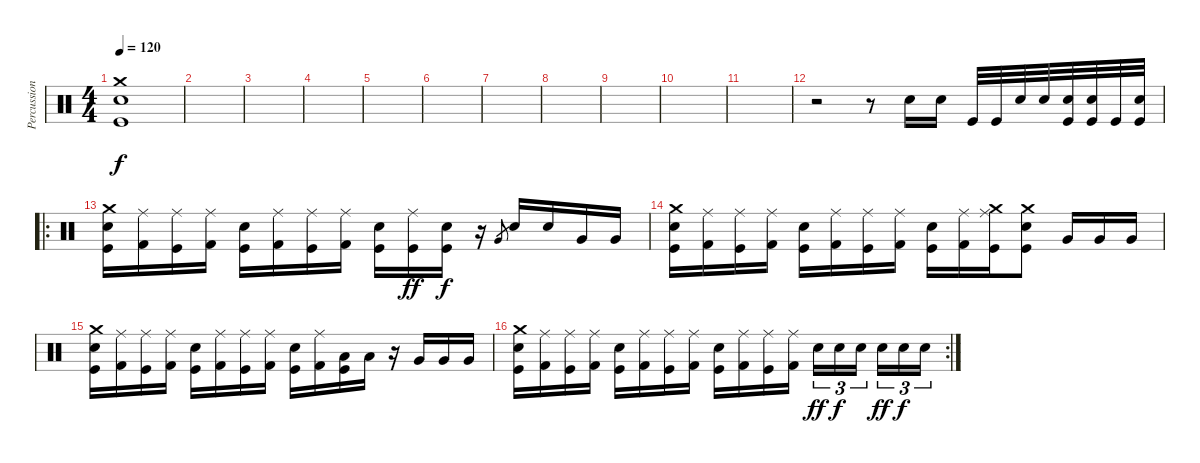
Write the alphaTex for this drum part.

\track ("Percussion" "Percussion") {instrument percussion}
\staff {score}
\articulation defaults
\ts (4 4)
\tempo 120
\clef neutral
\ks c
("Crash medium (hit)" "Snare (hit) 2" "Kick (hit)").1{dy f} |
|
|
|
|
|
|
|
|
|
|
r.2 r.8 "Electric Snare (hit)".16 "Electric Snare (hit)".16 "Kick (hit)".32 "Kick (hit)".32 "Electric Snare (hit)".32 "Electric Snare (hit)".32 ("Electric Snare (hit)" "Kick (hit)").32 ("Electric Snare (hit)" "Kick (hit)").32 "Kick (hit)".32 ("Electric Snare (hit)" "Kick (hit)").32 |
\ro
("Crash medium (hit)" "Snare (hit) 2" "Kick (hit)").16 ("Ride (middle)" "Kick (hit) 2").16 ("Ride (middle)" "Kick (hit)").16 ("Ride (middle)" "Kick (hit) 2").16 ("Snare (hit) 2" "Kick (hit)").16 ("Ride (middle)" "Kick (hit) 2").16 ("Ride (middle)" "Kick (hit)").16 ("Ride (middle)" "Kick (hit) 2").16 ("Snare (hit) 2" "Kick (hit)").16 ("Ride (middle)" "Kick (hit)").16{dy ff} ("Snare (hit) 2" "Kick (hit)").16{dy f} r.16 "Very Low Tom (hit)".8{gr} "Snare (hit) 2".16 "Snare (hit) 2".16 "Very Low Tom (hit)".16 "Very Low Tom (hit)".16 |
("Crash medium (hit)" "Snare (hit) 2" "Kick (hit)").16 ("Ride (middle)" "Kick (hit) 2").16 ("Ride (middle)" "Kick (hit)").16 ("Ride (middle)" "Kick (hit) 2").16 ("Snare (hit) 2" "Kick (hit)").16 ("Ride (middle)" "Kick (hit) 2").16 ("Ride (middle)" "Kick (hit)").16 ("Ride (middle)" "Kick (hit) 2").16 ("Snare (hit) 2" "Kick (hit)").16 ("Ride (middle)" "Kick (hit) 2").16 ("Crash medium (hit)" "Ride (middle)" "Kick (hit)").16 ("Crash medium (hit)" "Snare (hit) 2" "Kick (hit)").8 "Very Low Tom (hit)".16 "Very Low Tom (hit)".16 "Very Low Tom (hit)".16 |
("Crash medium (hit)" "Snare (hit) 2" "Kick (hit)").16 ("Ride (middle)" "Kick (hit) 2").16 ("Ride (middle)" "Kick (hit)").16 ("Ride (middle)" "Kick (hit) 2").16 ("Snare (hit) 2" "Kick (hit)").16 ("Ride (middle)" "Kick (hit) 2").16 ("Ride (middle)" "Kick (hit)").16 ("Ride (middle)" "Kick (hit) 2").16 ("Snare (hit) 2" "Kick (hit)").16 ("Ride (middle)" "Kick (hit) 2").16 ("Low Floor Tom (hit)" "Kick (hit)").16 "Low Floor Tom (hit)".16 r.16 "Very Low Tom (hit)".16 "Very Low Tom (hit)".16 "Very Low Tom (hit)".16 |
\rc 2
("Crash medium (hit)" "Snare (hit) 2" "Kick (hit)").16 ("Ride (middle)" "Kick (hit) 2").16 ("Ride (middle)" "Kick (hit)").16 ("Ride (middle)" "Kick (hit) 2").16 ("Snare (hit) 2" "Kick (hit)").16 ("Ride (middle)" "Kick (hit) 2").16 ("Ride (middle)" "Kick (hit)").16 ("Ride (middle)" "Kick (hit) 2").16 ("Snare (hit) 2" "Kick (hit)").16 ("Ride (middle)" "Kick (hit) 2").16 ("Ride (middle)" "Kick (hit)").16 ("Ride (middle)" "Kick (hit) 2").16 "Snare (hit) 2".16{tu (3 2) dy ff} "Snare (hit) 2".16{tu (3 2) dy f} "Snare (hit) 2".16{tu (3 2)} "Snare (hit) 2".16{tu (3 2) dy ff} "Snare (hit) 2".16{tu (3 2) dy f} "Snare (hit) 2".16{tu (3 2)}
